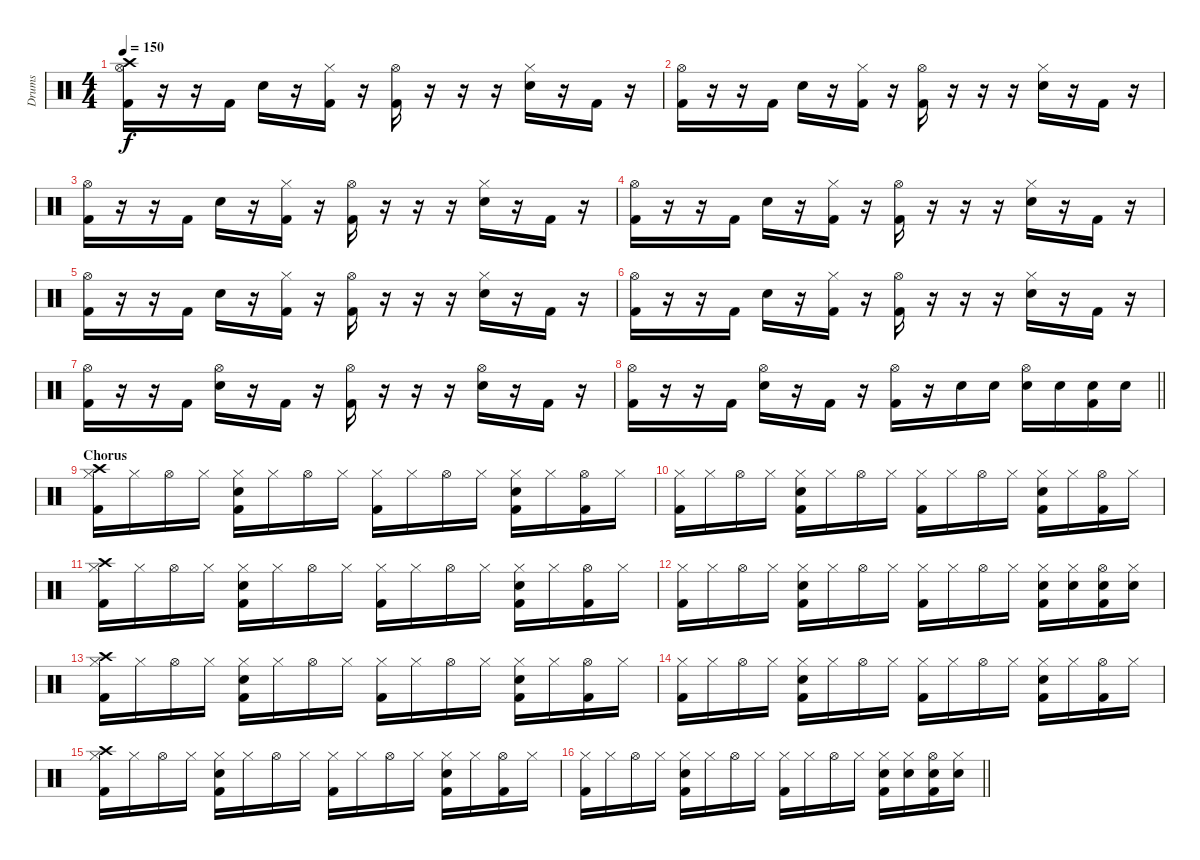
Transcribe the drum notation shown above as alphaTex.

\track ("Drums" "Drums") {instrument percussion}
\staff {score}
\articulation defaults
\ts (4 4)
\tempo 150
\clef neutral
\ks c
("Crash high (hit)" "Hi-Hat (open)" "Kick (hit) 2").16{dy f} r.16 r.16 "Kick (hit) 2".16 "Electric Snare (hit)".16 r.16 ("Hi-Hat (closed)" "Kick (hit) 2").16 r.16 ("Hi-Hat (open)" "Kick (hit) 2").16 r.16 r.16 r.16 ("Hi-Hat (closed)" "Electric Snare (hit)").16 r.16 "Kick (hit) 2".16 r.16 |
("Hi-Hat (open)" "Kick (hit) 2").16 r.16 r.16 "Kick (hit) 2".16 "Electric Snare (hit)".16 r.16 ("Hi-Hat (closed)" "Kick (hit) 2").16 r.16 ("Hi-Hat (open)" "Kick (hit) 2").16 r.16 r.16 r.16 ("Hi-Hat (closed)" "Electric Snare (hit)").16 r.16 "Kick (hit) 2".16 r.16 |
("Hi-Hat (open)" "Kick (hit) 2").16 r.16 r.16 "Kick (hit) 2".16 "Electric Snare (hit)".16 r.16 ("Hi-Hat (closed)" "Kick (hit) 2").16 r.16 ("Hi-Hat (open)" "Kick (hit) 2").16 r.16 r.16 r.16 ("Hi-Hat (closed)" "Electric Snare (hit)").16 r.16 "Kick (hit) 2".16 r.16 |
("Hi-Hat (open)" "Kick (hit) 2").16 r.16 r.16 "Kick (hit) 2".16 "Electric Snare (hit)".16 r.16 ("Hi-Hat (closed)" "Kick (hit) 2").16 r.16 ("Hi-Hat (open)" "Kick (hit) 2").16 r.16 r.16 r.16 ("Hi-Hat (closed)" "Electric Snare (hit)").16 r.16 "Kick (hit) 2".16 r.16 |
("Hi-Hat (open)" "Kick (hit) 2").16 r.16 r.16 "Kick (hit) 2".16 "Electric Snare (hit)".16 r.16 ("Hi-Hat (closed)" "Kick (hit) 2").16 r.16 ("Hi-Hat (open)" "Kick (hit) 2").16 r.16 r.16 r.16 ("Hi-Hat (closed)" "Electric Snare (hit)").16 r.16 "Kick (hit) 2".16 r.16 |
("Hi-Hat (open)" "Kick (hit) 2").16 r.16 r.16 "Kick (hit) 2".16 "Electric Snare (hit)".16 r.16 ("Hi-Hat (closed)" "Kick (hit) 2").16 r.16 ("Hi-Hat (open)" "Kick (hit) 2").16 r.16 r.16 r.16 ("Hi-Hat (closed)" "Electric Snare (hit)").16 r.16 "Kick (hit) 2".16 r.16 |
("Hi-Hat (open)" "Kick (hit) 2").16 r.16 r.16 "Kick (hit) 2".16 ("Hi-Hat (open)" "Electric Snare (hit)").16 r.16 "Kick (hit) 2".16 r.16 ("Hi-Hat (open)" "Kick (hit) 2").16 r.16 r.16 r.16 ("Hi-Hat (open)" "Electric Snare (hit)").16 r.16 "Kick (hit) 2".16 r.16 |
\barLineRight lightlight
("Hi-Hat (open)" "Kick (hit) 2").16 r.16 r.16 "Kick (hit) 2".16 ("Hi-Hat (open)" "Electric Snare (hit)").16 r.16 "Kick (hit) 2".16 r.16 ("Hi-Hat (open)" "Kick (hit) 2").16 r.16 "Electric Snare (hit)".16 "Electric Snare (hit)".16 ("Hi-Hat (open)" "Electric Snare (hit)").16 "Electric Snare (hit)".16 ("Electric Snare (hit)" "Kick (hit) 2").16 "Electric Snare (hit)".16 |
\section ("" "Chorus")
("Crash high (hit)" "Hi-Hat (closed)" "Kick (hit) 2").16 "Hi-Hat (closed)".16 "Hi-Hat (open)".16 "Hi-Hat (closed)".16 ("Hi-Hat (closed)" "Electric Snare (hit)" "Kick (hit) 2").16 "Hi-Hat (closed)".16 "Hi-Hat (open)".16 "Hi-Hat (closed)".16 ("Hi-Hat (closed)" "Kick (hit) 2").16 "Hi-Hat (closed)".16 "Hi-Hat (open)".16 "Hi-Hat (closed)".16 ("Hi-Hat (closed)" "Electric Snare (hit)" "Kick (hit) 2").16 "Hi-Hat (closed)".16 ("Hi-Hat (open)" "Kick (hit) 2").16 "Hi-Hat (closed)".16 |
("Hi-Hat (closed)" "Kick (hit) 2").16 "Hi-Hat (closed)".16 "Hi-Hat (open)".16 "Hi-Hat (closed)".16 ("Hi-Hat (closed)" "Electric Snare (hit)" "Kick (hit) 2").16 "Hi-Hat (closed)".16 "Hi-Hat (open)".16 "Hi-Hat (closed)".16 ("Hi-Hat (closed)" "Kick (hit) 2").16 "Hi-Hat (closed)".16 "Hi-Hat (open)".16 "Hi-Hat (closed)".16 ("Hi-Hat (closed)" "Electric Snare (hit)" "Kick (hit) 2").16 "Hi-Hat (closed)".16 ("Hi-Hat (open)" "Kick (hit) 2").16 "Hi-Hat (closed)".16 |
("Crash high (hit)" "Hi-Hat (closed)" "Kick (hit) 2").16 "Hi-Hat (closed)".16 "Hi-Hat (open)".16 "Hi-Hat (closed)".16 ("Hi-Hat (closed)" "Electric Snare (hit)" "Kick (hit) 2").16 "Hi-Hat (closed)".16 "Hi-Hat (open)".16 "Hi-Hat (closed)".16 ("Hi-Hat (closed)" "Kick (hit) 2").16 "Hi-Hat (closed)".16 "Hi-Hat (open)".16 "Hi-Hat (closed)".16 ("Hi-Hat (closed)" "Electric Snare (hit)" "Kick (hit) 2").16 "Hi-Hat (closed)".16 ("Hi-Hat (open)" "Kick (hit) 2").16 "Hi-Hat (closed)".16 |
("Hi-Hat (closed)" "Kick (hit) 2").16 "Hi-Hat (closed)".16 "Hi-Hat (open)".16 "Hi-Hat (closed)".16 ("Hi-Hat (closed)" "Electric Snare (hit)" "Kick (hit) 2").16 "Hi-Hat (closed)".16 "Hi-Hat (open)".16 "Hi-Hat (closed)".16 ("Hi-Hat (closed)" "Kick (hit) 2").16 "Hi-Hat (closed)".16 "Hi-Hat (open)".16 "Hi-Hat (closed)".16 ("Hi-Hat (closed)" "Electric Snare (hit)" "Kick (hit) 2").16 ("Hi-Hat (closed)" "Electric Snare (hit)").16 ("Hi-Hat (open)" "Electric Snare (hit)" "Kick (hit) 2").16 ("Hi-Hat (closed)" "Electric Snare (hit)").16 |
("Crash high (hit)" "Hi-Hat (closed)" "Kick (hit) 2").16 "Hi-Hat (closed)".16 "Hi-Hat (open)".16 "Hi-Hat (closed)".16 ("Hi-Hat (closed)" "Electric Snare (hit)" "Kick (hit) 2").16 "Hi-Hat (closed)".16 "Hi-Hat (open)".16 "Hi-Hat (closed)".16 ("Hi-Hat (closed)" "Kick (hit) 2").16 "Hi-Hat (closed)".16 "Hi-Hat (open)".16 "Hi-Hat (closed)".16 ("Hi-Hat (closed)" "Electric Snare (hit)" "Kick (hit) 2").16 "Hi-Hat (closed)".16 ("Hi-Hat (open)" "Kick (hit) 2").16 "Hi-Hat (closed)".16 |
("Hi-Hat (closed)" "Kick (hit) 2").16 "Hi-Hat (closed)".16 "Hi-Hat (open)".16 "Hi-Hat (closed)".16 ("Hi-Hat (closed)" "Electric Snare (hit)" "Kick (hit) 2").16 "Hi-Hat (closed)".16 "Hi-Hat (open)".16 "Hi-Hat (closed)".16 ("Hi-Hat (closed)" "Kick (hit) 2").16 "Hi-Hat (closed)".16 "Hi-Hat (open)".16 "Hi-Hat (closed)".16 ("Hi-Hat (closed)" "Electric Snare (hit)" "Kick (hit) 2").16 "Hi-Hat (closed)".16 ("Hi-Hat (open)" "Kick (hit) 2").16 "Hi-Hat (closed)".16 |
("Crash high (hit)" "Hi-Hat (closed)" "Kick (hit) 2").16 "Hi-Hat (closed)".16 "Hi-Hat (open)".16 "Hi-Hat (closed)".16 ("Hi-Hat (closed)" "Electric Snare (hit)" "Kick (hit) 2").16 "Hi-Hat (closed)".16 "Hi-Hat (open)".16 "Hi-Hat (closed)".16 ("Hi-Hat (closed)" "Kick (hit) 2").16 "Hi-Hat (closed)".16 "Hi-Hat (open)".16 "Hi-Hat (closed)".16 ("Hi-Hat (closed)" "Electric Snare (hit)" "Kick (hit) 2").16 "Hi-Hat (closed)".16 ("Hi-Hat (open)" "Kick (hit) 2").16 "Hi-Hat (closed)".16 |
\barLineRight lightlight
("Hi-Hat (closed)" "Kick (hit) 2").16 "Hi-Hat (closed)".16 "Hi-Hat (open)".16 "Hi-Hat (closed)".16 ("Hi-Hat (closed)" "Electric Snare (hit)" "Kick (hit) 2").16 "Hi-Hat (closed)".16 "Hi-Hat (open)".16 "Hi-Hat (closed)".16 ("Hi-Hat (closed)" "Kick (hit) 2").16 "Hi-Hat (closed)".16 "Hi-Hat (open)".16 "Hi-Hat (closed)".16 ("Hi-Hat (closed)" "Electric Snare (hit)" "Kick (hit) 2").16 ("Hi-Hat (closed)" "Electric Snare (hit)").16 ("Hi-Hat (open)" "Electric Snare (hit)" "Kick (hit) 2").16 ("Hi-Hat (closed)" "Electric Snare (hit)").16
